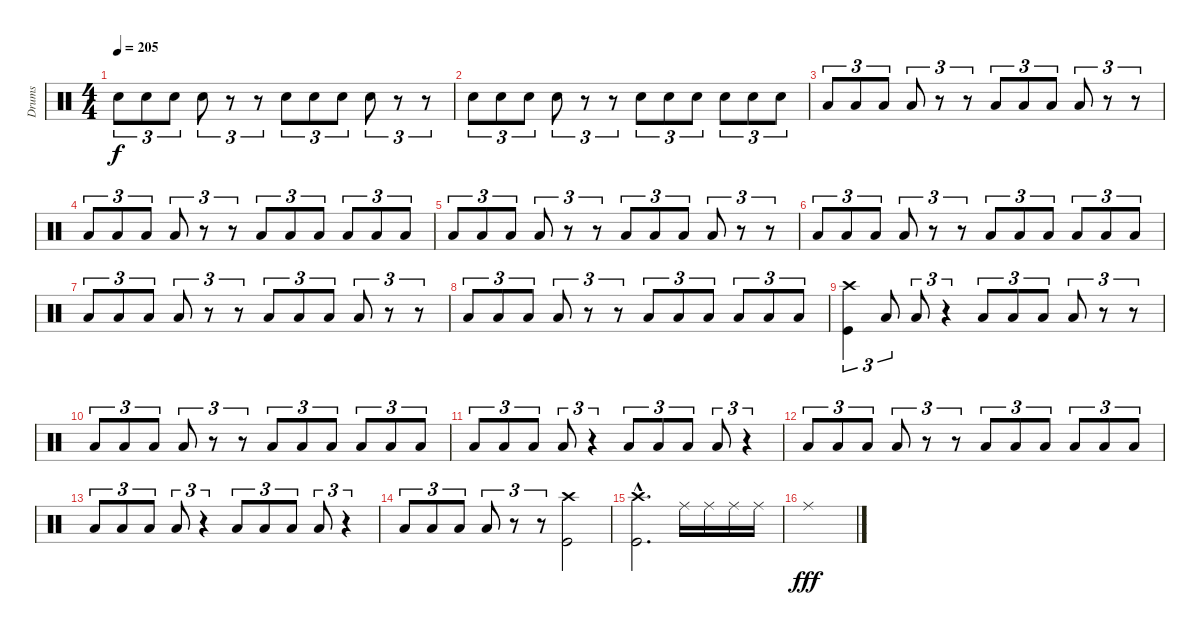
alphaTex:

\track ("Drums" "Drums") {instrument percussion}
\staff {score}
\articulation defaults
\ts (4 4)
\tempo 205
\clef neutral
\ks c "Snare (hit) 2".8{tu (3 2) dy f} "Snare (hit) 2".8{tu (3 2)} "Snare (hit) 2".8{tu (3 2)} "Snare (hit) 2".8{tu (3 2)}
r.8{tu (3 2)} r.8{tu (3 2)} "Snare (hit) 2".8{tu (3 2)} "Snare (hit) 2".8{tu (3 2)} "Snare (hit) 2".8{tu (3 2)} "Snare (hit) 2".8{tu (3 2)} r.8{tu (3 2)} r.8{tu (3 2)} |
"Snare (hit) 2".8{tu (3 2)} "Snare (hit) 2".8{tu (3 2)} "Snare (hit) 2".8{tu (3 2)} "Snare (hit) 2".8{tu (3 2)} r.8{tu (3 2)} r.8{tu (3 2)} "Snare (hit) 2".8{tu (3 2)} "Snare (hit) 2".8{tu (3 2)} "Snare (hit) 2".8{tu (3 2)} "Snare (hit) 2".8{tu (3 2)} "Snare (hit) 2".8{tu (3 2)} "Snare (hit) 2".8{tu (3 2)} |
"Low Tom (hit)".8{tu (3 2)} "Low Tom (hit)".8{tu (3 2)} "Low Tom (hit)".8{tu (3 2)} "Low Tom (hit)".8{tu (3 2)} r.8{tu (3 2)} r.8{tu (3 2)} "Low Tom (hit)".8{tu (3 2)} "Low Tom (hit)".8{tu (3 2)} "Low Tom (hit)".8{tu (3 2)} "Low Tom (hit)".8{tu (3 2)} r.8{tu (3 2)} r.8{tu (3 2)} |
"Low Tom (hit)".8{tu (3 2)} "Low Tom (hit)".8{tu (3 2)} "Low Tom (hit)".8{tu (3 2)} "Low Tom (hit)".8{tu (3 2)} r.8{tu (3 2)} r.8{tu (3 2)} "Low Tom (hit)".8{tu (3 2)} "Low Tom (hit)".8{tu (3 2)} "Low Tom (hit)".8{tu (3 2)} "Low Tom (hit)".8{tu (3 2)} "Low Tom (hit)".8{tu (3 2)} "Low Tom (hit)".8{tu (3 2)} |
"Low Tom (hit)".8{tu (3 2)} "Low Tom (hit)".8{tu (3 2)} "Low Tom (hit)".8{tu (3 2)} "Low Tom (hit)".8{tu (3 2)} r.8{tu (3 2)} r.8{tu (3 2)} "Low Tom (hit)".8{tu (3 2)} "Low Tom (hit)".8{tu (3 2)} "Low Tom (hit)".8{tu (3 2)} "Low Tom (hit)".8{tu (3 2)} r.8{tu (3 2)} r.8{tu (3 2)} |
"Low Tom (hit)".8{tu (3 2)} "Low Tom (hit)".8{tu (3 2)} "Low Tom (hit)".8{tu (3 2)} "Low Tom (hit)".8{tu (3 2)} r.8{tu (3 2)} r.8{tu (3 2)} "Low Tom (hit)".8{tu (3 2)} "Low Tom (hit)".8{tu (3 2)} "Low Tom (hit)".8{tu (3 2)} "Low Tom (hit)".8{tu (3 2)} "Low Tom (hit)".8{tu (3 2)} "Low Tom (hit)".8{tu (3 2)} |
"Low Tom (hit)".8{tu (3 2)} "Low Tom (hit)".8{tu (3 2)} "Low Tom (hit)".8{tu (3 2)} "Low Tom (hit)".8{tu (3 2)} r.8{tu (3 2)} r.8{tu (3 2)} "Low Tom (hit)".8{tu (3 2)} "Low Tom (hit)".8{tu (3 2)} "Low Tom (hit)".8{tu (3 2)} "Low Tom (hit)".8{tu (3 2)} r.8{tu (3 2)} r.8{tu (3 2)} |
"Low Tom (hit)".8{tu (3 2)} "Low Tom (hit)".8{tu (3 2)} "Low Tom (hit)".8{tu (3 2)} "Low Tom (hit)".8{tu (3 2)} r.8{tu (3 2)} r.8{tu (3 2)} "Low Tom (hit)".8{tu (3 2)} "Low Tom (hit)".8{tu (3 2)} "Low Tom (hit)".8{tu (3 2)} "Low Tom (hit)".8{tu (3 2)} "Low Tom (hit)".8{tu (3 2)} "Low Tom (hit)".8{tu (3 2)} |
("Crash high (hit)" "Kick (hit)").4{tu (3 2)} "Low Tom (hit)".8{tu (3 2)} "Low Tom (hit)".8{tu (3 2)} r.4{tu (3 2)} "Low Tom (hit)".8{tu (3 2)} "Low Tom (hit)".8{tu (3 2)} "Low Tom (hit)".8{tu (3 2)} "Low Tom (hit)".8{tu (3 2)} r.8{tu (3 2)} r.8{tu (3 2)} |
"Low Tom (hit)".8{tu (3 2)} "Low Tom (hit)".8{tu (3 2)} "Low Tom (hit)".8{tu (3 2)} "Low Tom (hit)".8{tu (3 2)} r.8{tu (3 2)} r.8{tu (3 2)} "Low Tom (hit)".8{tu (3 2)} "Low Tom (hit)".8{tu (3 2)} "Low Tom (hit)".8{tu (3 2)} "Low Tom (hit)".8{tu (3 2)} "Low Tom (hit)".8{tu (3 2)} "Low Tom (hit)".8{tu (3 2)} |
"Low Tom (hit)".8{tu (3 2)} "Low Tom (hit)".8{tu (3 2)} "Low Tom (hit)".8{tu (3 2)} "Low Tom (hit)".8{tu (3 2)} r.4{tu (3 2)} "Low Tom (hit)".8{tu (3 2)} "Low Tom (hit)".8{tu (3 2)} "Low Tom (hit)".8{tu (3 2)} "Low Tom (hit)".8{tu (3 2)} r.4{tu (3 2)} |
"Low Tom (hit)".8{tu (3 2)} "Low Tom (hit)".8{tu (3 2)} "Low Tom (hit)".8{tu (3 2)} "Low Tom (hit)".8{tu (3 2)} r.8{tu (3 2)} r.8{tu (3 2)} "Low Tom (hit)".8{tu (3 2)} "Low Tom (hit)".8{tu (3 2)} "Low Tom (hit)".8{tu (3 2)} "Low Tom (hit)".8{tu (3 2)} "Low Tom (hit)".8{tu (3 2)} "Low Tom (hit)".8{tu (3 2)} |
"Low Tom (hit)".8{tu (3 2)} "Low Tom (hit)".8{tu (3 2)} "Low Tom (hit)".8{tu (3 2)} "Low Tom (hit)".8{tu (3 2)} r.4{tu (3 2)} "Low Tom (hit)".8{tu (3 2)} "Low Tom (hit)".8{tu (3 2)} "Low Tom (hit)".8{tu (3 2)} "Low Tom (hit)".8{tu (3 2)} r.4{tu (3 2)} |
"Low Tom (hit)".8{tu (3 2)} "Low Tom (hit)".8{tu (3 2)} "Low Tom (hit)".8{tu (3 2)} "Low Tom (hit)".8{tu (3 2)} r.8{tu (3 2)} r.8{tu (3 2)} ("Crash high (hit)" "Kick (hit)").2 |
("Crash high (hit)"{hac} "Kick (hit)"{hac}).2{d} "Ride (middle)".16 "Ride (middle)".16 "Ride (middle)".16 "Ride (middle)".16 |
"Ride (middle)".1{dy fff}
